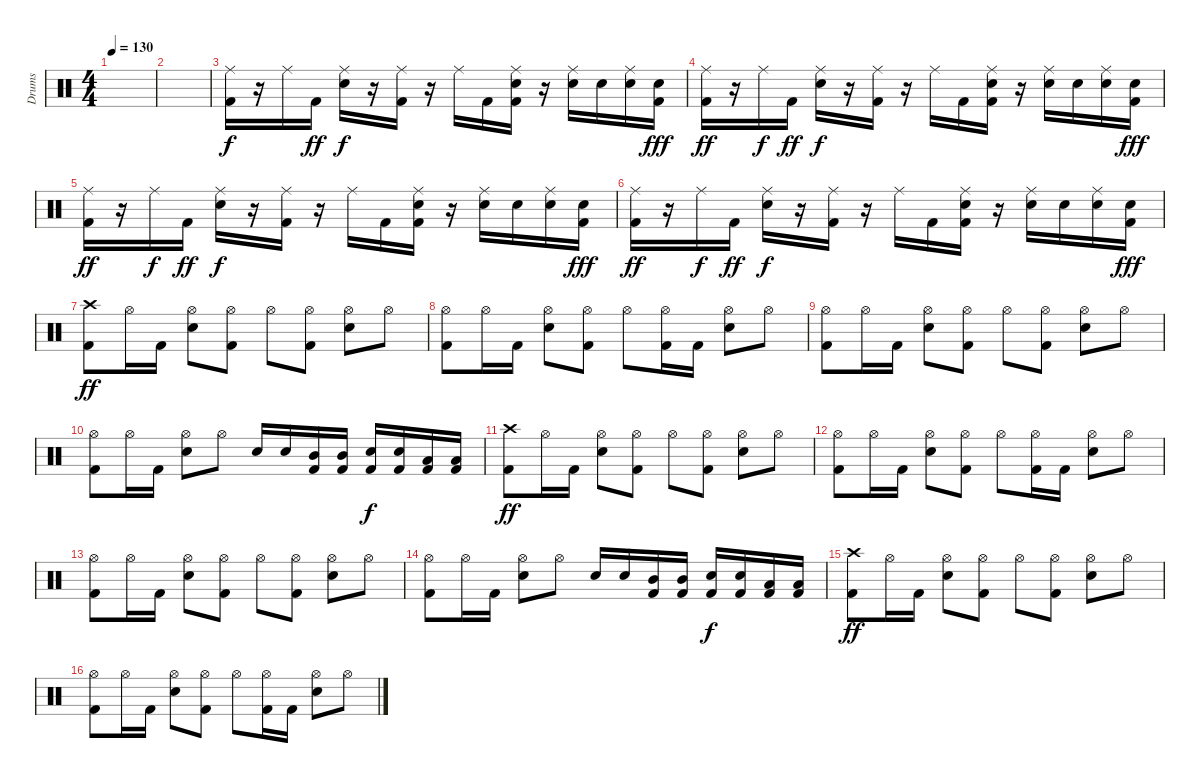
\track ("Drums" "Drums") {instrument percussion}
\staff {score}
\articulation defaults
\ts (4 4)
\tempo 130
\clef neutral
\ks c
|
|
("Kick (hit) 2" "Ride (middle)").16 r.16 "Ride (middle)".16{dy f} "Kick (hit) 2".16{dy ff} ("Electric Snare (hit)" "Ride (middle)").16{dy f} r.16 ("Kick (hit) 2" "Ride (middle)").16 r.16 "Ride (middle)".16 "Kick (hit) 2".16 ("Electric Snare (hit)" "Kick (hit) 2" "Ride (middle)").16 r.16 ("Electric Snare (hit)" "Ride (middle)").16 "Electric Snare (hit)".16 ("Electric Snare (hit)" "Ride (middle)").16 ("Electric Snare (hit)" "Kick (hit) 2").16{dy fff} |
("Kick (hit) 2" "Ride (middle)").16{dy ff} r.16 "Ride (middle)".16{dy f} "Kick (hit) 2".16{dy ff} ("Electric Snare (hit)" "Ride (middle)").16{dy f} r.16 ("Kick (hit) 2" "Ride (middle)").16 r.16 "Ride (middle)".16 "Kick (hit) 2".16 ("Electric Snare (hit)" "Kick (hit) 2" "Ride (middle)").16 r.16 ("Electric Snare (hit)" "Ride (middle)").16 "Electric Snare (hit)".16 ("Electric Snare (hit)" "Ride (middle)").16 ("Electric Snare (hit)" "Kick (hit) 2").16{dy fff} |
("Kick (hit) 2" "Ride (middle)").16{dy ff} r.16 "Ride (middle)".16{dy f} "Kick (hit) 2".16{dy ff} ("Electric Snare (hit)" "Ride (middle)").16{dy f} r.16 ("Kick (hit) 2" "Ride (middle)").16 r.16 "Ride (middle)".16 "Kick (hit) 2".16 ("Electric Snare (hit)" "Kick (hit) 2" "Ride (middle)").16 r.16 ("Electric Snare (hit)" "Ride (middle)").16 "Electric Snare (hit)".16 ("Electric Snare (hit)" "Ride (middle)").16 ("Electric Snare (hit)" "Kick (hit) 2").16{dy fff} |
("Kick (hit) 2" "Ride (middle)").16{dy ff} r.16 "Ride (middle)".16{dy f} "Kick (hit) 2".16{dy ff} ("Electric Snare (hit)" "Ride (middle)").16{dy f} r.16 ("Kick (hit) 2" "Ride (middle)").16 r.16 "Ride (middle)".16 "Kick (hit) 2".16 ("Electric Snare (hit)" "Kick (hit) 2" "Ride (middle)").16 r.16 ("Electric Snare (hit)" "Ride (middle)").16 "Electric Snare (hit)".16 ("Electric Snare (hit)" "Ride (middle)").16 ("Electric Snare (hit)" "Kick (hit) 2").16{dy fff} |
("Kick (hit) 2" "Crash high (hit)").8{dy ff} "Hi-Hat (open)".16 "Kick (hit) 2".16 ("Hi-Hat (open)" "Electric Snare (hit)").8 ("Kick (hit) 2" "Hi-Hat (open)").8 "Hi-Hat (open)".8 ("Kick (hit) 2" "Hi-Hat (open)").8 ("Hi-Hat (open)" "Electric Snare (hit)").8 "Hi-Hat (open)".8 |
("Kick (hit) 2" "Hi-Hat (open)").8 "Hi-Hat (open)".16 "Kick (hit) 2".16 ("Hi-Hat (open)" "Electric Snare (hit)").8 ("Kick (hit) 2" "Hi-Hat (open)").8 "Hi-Hat (open)".8 ("Kick (hit) 2" "Hi-Hat (open)").16 "Kick (hit) 2".16 ("Hi-Hat (open)" "Electric Snare (hit)").8 "Hi-Hat (open)".8 |
("Kick (hit) 2" "Hi-Hat (open)").8 "Hi-Hat (open)".16 "Kick (hit) 2".16 ("Hi-Hat (open)" "Electric Snare (hit)").8 ("Kick (hit) 2" "Hi-Hat (open)").8 "Hi-Hat (open)".8 ("Kick (hit) 2" "Hi-Hat (open)").8 ("Hi-Hat (open)" "Electric Snare (hit)").8 "Hi-Hat (open)".8 |
("Kick (hit) 2" "Hi-Hat (open)").8 "Hi-Hat (open)".16 "Kick (hit) 2".16 ("Hi-Hat (open)" "Electric Snare (hit)").8 "Hi-Hat (open)".8 "Electric Snare (hit)".16 "Electric Snare (hit)".16 ("Kick (hit) 2" "Mid Tom (hit)").16 ("Kick (hit) 2" "Mid Tom (hit)").16 ("Kick (hit) 2" "Electric Snare (hit)").16{dy f} ("Kick (hit) 2" "Electric Snare (hit)").16 ("Kick (hit) 2" "Low Tom (hit)").16 ("Kick (hit) 2" "Low Tom (hit)").16 |
("Kick (hit) 2" "Crash high (hit)").8{dy ff} "Hi-Hat (open)".16 "Kick (hit) 2".16 ("Hi-Hat (open)" "Electric Snare (hit)").8 ("Kick (hit) 2" "Hi-Hat (open)").8 "Hi-Hat (open)".8 ("Kick (hit) 2" "Hi-Hat (open)").8 ("Hi-Hat (open)" "Electric Snare (hit)").8 "Hi-Hat (open)".8 |
("Kick (hit) 2" "Hi-Hat (open)").8 "Hi-Hat (open)".16 "Kick (hit) 2".16 ("Hi-Hat (open)" "Electric Snare (hit)").8 ("Kick (hit) 2" "Hi-Hat (open)").8 "Hi-Hat (open)".8 ("Kick (hit) 2" "Hi-Hat (open)").16 "Kick (hit) 2".16 ("Hi-Hat (open)" "Electric Snare (hit)").8 "Hi-Hat (open)".8 |
("Kick (hit) 2" "Hi-Hat (open)").8 "Hi-Hat (open)".16 "Kick (hit) 2".16 ("Hi-Hat (open)" "Electric Snare (hit)").8 ("Kick (hit) 2" "Hi-Hat (open)").8 "Hi-Hat (open)".8 ("Kick (hit) 2" "Hi-Hat (open)").8 ("Hi-Hat (open)" "Electric Snare (hit)").8 "Hi-Hat (open)".8 |
("Kick (hit) 2" "Hi-Hat (open)").8 "Hi-Hat (open)".16 "Kick (hit) 2".16 ("Hi-Hat (open)" "Electric Snare (hit)").8 "Hi-Hat (open)".8 "Electric Snare (hit)".16 "Electric Snare (hit)".16 ("Kick (hit) 2" "Mid Tom (hit)").16 ("Kick (hit) 2" "Mid Tom (hit)").16 ("Kick (hit) 2" "Electric Snare (hit)").16{dy f} ("Kick (hit) 2" "Electric Snare (hit)").16 ("Kick (hit) 2" "Low Tom (hit)").16 ("Kick (hit) 2" "Low Tom (hit)").16 |
("Kick (hit) 2" "Crash high (hit)").8{dy ff} "Hi-Hat (open)".16 "Kick (hit) 2".16 ("Hi-Hat (open)" "Electric Snare (hit)").8 ("Kick (hit) 2" "Hi-Hat (open)").8 "Hi-Hat (open)".8 ("Kick (hit) 2" "Hi-Hat (open)").8 ("Hi-Hat (open)" "Electric Snare (hit)").8 "Hi-Hat (open)".8 |
("Kick (hit) 2" "Hi-Hat (open)").8 "Hi-Hat (open)".16 "Kick (hit) 2".16 ("Hi-Hat (open)" "Electric Snare (hit)").8 ("Kick (hit) 2" "Hi-Hat (open)").8 "Hi-Hat (open)".8 ("Kick (hit) 2" "Hi-Hat (open)").16 "Kick (hit) 2".16 ("Hi-Hat (open)" "Electric Snare (hit)").8 "Hi-Hat (open)".8
